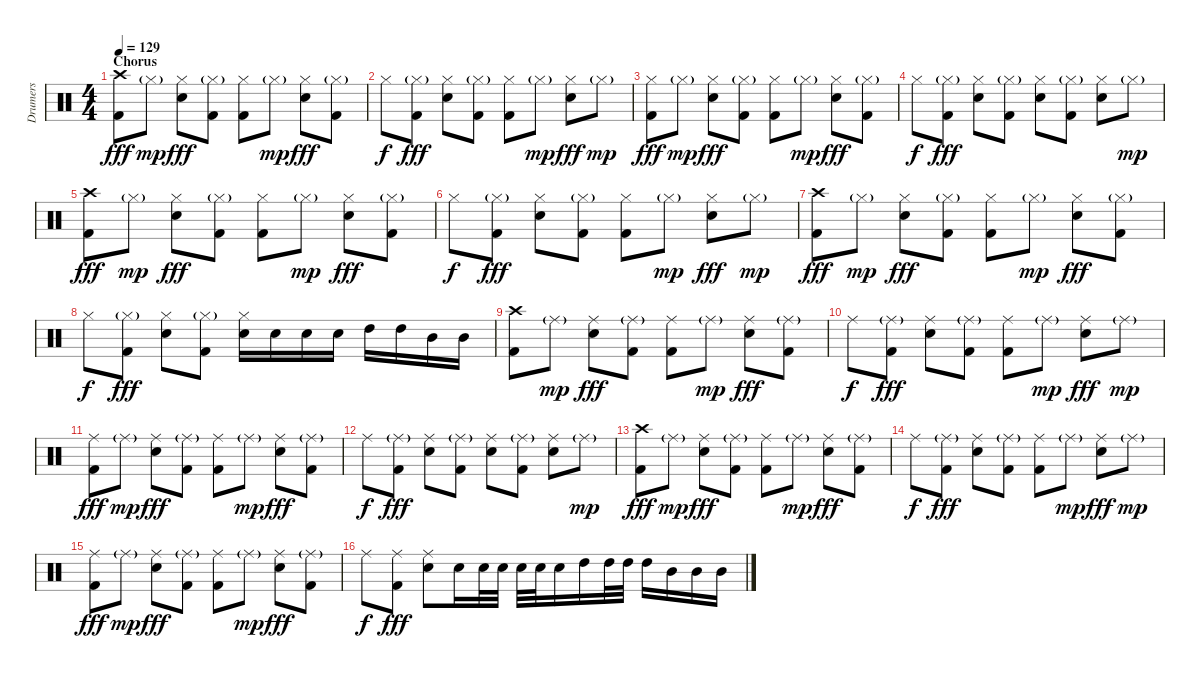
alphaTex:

\track ("Drumers" "Drumers") {instrument percussion}
\staff {score}
\articulation defaults
\ts (4 4)
\section ("" "Chorus")
\tempo 129
\clef neutral
\ks c
("Crash high (hit)" "Kick (hit) 2").8{dy fff} "Hi-Hat (closed)"{g}.8{dy mp} ("Hi-Hat (closed)" "Electric Snare (hit)").8{dy fff} ("Hi-Hat (closed)"{g} "Kick (hit) 2").8 ("Hi-Hat (closed)" "Kick (hit) 2").8 "Hi-Hat (closed)"{g}.8{dy mp} ("Hi-Hat (closed)" "Electric Snare (hit)").8{dy fff} ("Hi-Hat (closed)"{g} "Kick (hit) 2").8 |
"Hi-Hat (closed)".8{dy f} ("Hi-Hat (closed)"{g} "Kick (hit) 2").8{dy fff} ("Hi-Hat (closed)" "Electric Snare (hit)").8 ("Hi-Hat (closed)"{g} "Kick (hit) 2").8 ("Hi-Hat (closed)" "Kick (hit) 2").8 "Hi-Hat (closed)"{g}.8{dy mp} ("Hi-Hat (closed)" "Electric Snare (hit)").8{dy fff} "Hi-Hat (closed)"{g}.8{dy mp} |
("Hi-Hat (closed)" "Kick (hit) 2").8{dy fff} "Hi-Hat (closed)"{g}.8{dy mp} ("Hi-Hat (closed)" "Electric Snare (hit)").8{dy fff} ("Hi-Hat (closed)"{g} "Kick (hit) 2").8 ("Hi-Hat (closed)" "Kick (hit) 2").8 "Hi-Hat (closed)"{g}.8{dy mp} ("Hi-Hat (closed)" "Electric Snare (hit)").8{dy fff} ("Hi-Hat (closed)"{g} "Kick (hit) 2").8 |
"Hi-Hat (closed)".8{dy f} ("Hi-Hat (closed)"{g} "Kick (hit) 2").8{dy fff} ("Hi-Hat (closed)" "Electric Snare (hit)").8 ("Hi-Hat (closed)"{g} "Kick (hit) 2").8 ("Hi-Hat (closed)" "Electric Snare (hit)").8 ("Hi-Hat (closed)"{g} "Kick (hit) 2").8 ("Hi-Hat (closed)" "Electric Snare (hit)").8 "Hi-Hat (closed)"{g}.8{dy mp} |
("Crash high (hit)" "Kick (hit) 2").8{dy fff} "Hi-Hat (closed)"{g}.8{dy mp} ("Hi-Hat (closed)" "Electric Snare (hit)").8{dy fff} ("Hi-Hat (closed)"{g} "Kick (hit) 2").8 ("Hi-Hat (closed)" "Kick (hit) 2").8 "Hi-Hat (closed)"{g}.8{dy mp} ("Hi-Hat (closed)" "Electric Snare (hit)").8{dy fff} ("Hi-Hat (closed)"{g} "Kick (hit) 2").8 |
"Hi-Hat (closed)".8{dy f} ("Hi-Hat (closed)"{g} "Kick (hit) 2").8{dy fff} ("Hi-Hat (closed)" "Electric Snare (hit)").8 ("Hi-Hat (closed)"{g} "Kick (hit) 2").8 ("Hi-Hat (closed)" "Kick (hit) 2").8 "Hi-Hat (closed)"{g}.8{dy mp} ("Hi-Hat (closed)" "Electric Snare (hit)").8{dy fff} "Hi-Hat (closed)"{g}.8{dy mp} |
("Crash high (hit)" "Kick (hit) 2").8{dy fff} "Hi-Hat (closed)"{g}.8{dy mp} ("Hi-Hat (closed)" "Electric Snare (hit)").8{dy fff} ("Hi-Hat (closed)"{g} "Kick (hit) 2").8 ("Hi-Hat (closed)" "Kick (hit) 2").8 "Hi-Hat (closed)"{g}.8{dy mp} ("Hi-Hat (closed)" "Electric Snare (hit)").8{dy fff} ("Hi-Hat (closed)"{g} "Kick (hit) 2").8 |
"Hi-Hat (closed)".8{dy f} ("Hi-Hat (closed)"{g} "Kick (hit) 2").8{dy fff} ("Hi-Hat (closed)" "Electric Snare (hit)").8 ("Hi-Hat (closed)"{g} "Kick (hit) 2").8 ("Hi-Hat (closed)" "Electric Snare (hit)").16 "Electric Snare (hit)".16 "Electric Snare (hit)".16 "Electric Snare (hit)".16 "High Tom (hit)".16 "High Tom (hit)".16 "Mid Tom (hit)".16 "Mid Tom (hit)".16 |
("Crash high (hit)" "Kick (hit) 2").8 "Ride (middle)"{g}.8{dy mp} ("Ride (middle)" "Electric Snare (hit)").8{dy fff} ("Ride (middle)"{g} "Kick (hit) 2").8 ("Ride (middle)" "Kick (hit) 2").8 "Ride (middle)"{g}.8{dy mp} ("Ride (middle)" "Electric Snare (hit)").8{dy fff} ("Ride (middle)"{g} "Kick (hit) 2").8 |
"Ride (middle)".8{dy f} ("Ride (middle)"{g} "Kick (hit) 2").8{dy fff} ("Ride (middle)" "Electric Snare (hit)").8 ("Ride (middle)"{g} "Kick (hit) 2").8 ("Ride (middle)" "Kick (hit) 2").8 "Ride (middle)"{g}.8{dy mp} ("Ride (middle)" "Electric Snare (hit)").8{dy fff} "Ride (middle)"{g}.8{dy mp} |
("Ride (middle)" "Kick (hit) 2").8{dy fff} "Ride (middle)"{g}.8{dy mp} ("Ride (middle)" "Electric Snare (hit)").8{dy fff} ("Ride (middle)"{g} "Kick (hit) 2").8 ("Ride (middle)" "Kick (hit) 2").8 "Ride (middle)"{g}.8{dy mp} ("Ride (middle)" "Electric Snare (hit)").8{dy fff} ("Ride (middle)"{g} "Kick (hit) 2").8 |
"Ride (middle)".8{dy f} ("Ride (middle)"{g} "Kick (hit) 2").8{dy fff} ("Ride (middle)" "Electric Snare (hit)").8 ("Ride (middle)"{g} "Kick (hit) 2").8 ("Ride (middle)" "Electric Snare (hit)").8 ("Ride (middle)"{g} "Kick (hit) 2").8 ("Ride (middle)" "Electric Snare (hit)").8 "Ride (middle)"{g}.8{dy mp} |
("Crash high (hit)" "Kick (hit) 2").8{dy fff} "Ride (middle)"{g}.8{dy mp} ("Ride (middle)" "Electric Snare (hit)").8{dy fff} ("Ride (middle)"{g} "Kick (hit) 2").8 ("Ride (middle)" "Kick (hit) 2").8 "Ride (middle)"{g}.8{dy mp} ("Ride (middle)" "Electric Snare (hit)").8{dy fff} ("Ride (middle)"{g} "Kick (hit) 2").8 |
"Ride (middle)".8{dy f} ("Ride (middle)"{g} "Kick (hit) 2").8{dy fff} ("Ride (middle)" "Electric Snare (hit)").8 ("Ride (middle)"{g} "Kick (hit) 2").8 ("Ride (middle)" "Kick (hit) 2").8 "Ride (middle)"{g}.8{dy mp} ("Ride (middle)" "Electric Snare (hit)").8{dy fff} "Ride (middle)"{g}.8{dy mp} |
("Ride (middle)" "Kick (hit) 2").8{dy fff} "Ride (middle)"{g}.8{dy mp} ("Ride (middle)" "Electric Snare (hit)").8{dy fff} ("Ride (middle)"{g} "Kick (hit) 2").8 ("Ride (middle)" "Kick (hit) 2").8 "Ride (middle)"{g}.8{dy mp} ("Ride (middle)" "Electric Snare (hit)").8{dy fff} ("Ride (middle)"{g} "Kick (hit) 2").8 |
"Ride (middle)".8{dy f} ("Ride (middle)" "Kick (hit) 2").8{dy fff} ("Ride (middle)" "Electric Snare (hit)").8 "Electric Snare (hit)".16 "Electric Snare (hit)".32 "Electric Snare (hit)".32 "Electric Snare (hit)".32 "Electric Snare (hit)".32 "Electric Snare (hit)".16 "High Tom (hit)".16 "High Tom (hit)".32 "High Tom (hit)".32 "High Tom (hit)".16 "Mid Tom (hit)".16 "Mid Tom (hit)".16 "Mid Tom (hit)".16
